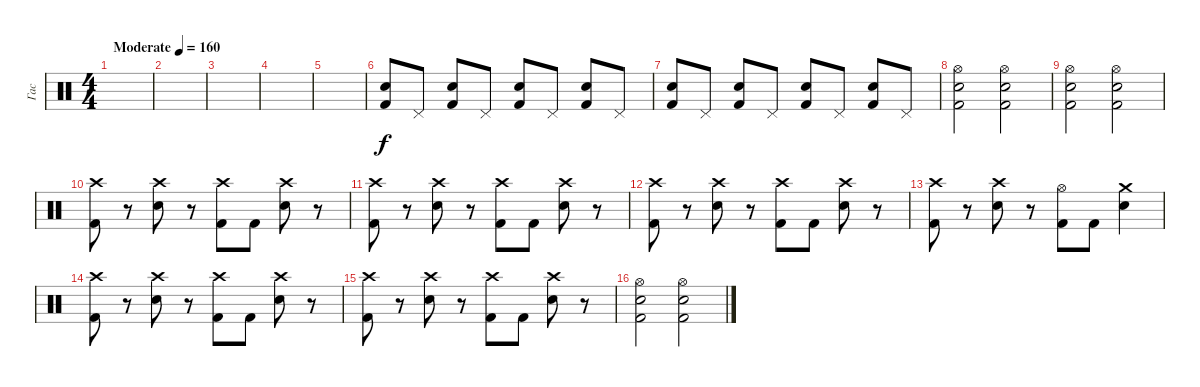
\track ("Гас" "Гас") {instrument percussion}
\staff {score}
\articulation defaults
\ts (4 4)
\tempo (160 "Moderate")
\clef neutral
\ks c
|
|
|
|
|
("Electric Snare (hit)" "Kick (hit) 2").8 "Pedal Hi-Hat (hit)".8 ("Electric Snare (hit)" "Kick (hit) 2").8 "Pedal Hi-Hat (hit)".8 ("Electric Snare (hit)" "Kick (hit) 2").8 "Pedal Hi-Hat (hit)".8 ("Electric Snare (hit)" "Kick (hit) 2").8 "Pedal Hi-Hat (hit)".8 |
("Electric Snare (hit)" "Kick (hit) 2").8 "Pedal Hi-Hat (hit)".8 ("Electric Snare (hit)" "Kick (hit) 2").8 "Pedal Hi-Hat (hit)".8 ("Electric Snare (hit)" "Kick (hit) 2").8 "Pedal Hi-Hat (hit)".8 ("Electric Snare (hit)" "Kick (hit) 2").8 "Pedal Hi-Hat (hit)".8 |
("Hi-Hat (open)" "Electric Snare (hit)" "Kick (hit) 2").2 ("Hi-Hat (open)" "Electric Snare (hit)" "Kick (hit) 2").2 |
("Hi-Hat (open)" "Electric Snare (hit)" "Kick (hit) 2").2 ("Hi-Hat (open)" "Electric Snare (hit)" "Kick (hit) 2").2 |
("Crash high (hit)" "Kick (hit) 2").8 r.8 ("Crash high (hit)" "Electric Snare (hit)").8 r.8 ("Crash high (hit)" "Kick (hit) 2").8 "Kick (hit) 2".8 ("Crash high (hit)" "Electric Snare (hit)").8 r.8 |
("Crash high (hit)" "Kick (hit) 2").8 r.8 ("Crash high (hit)" "Electric Snare (hit)").8 r.8 ("Crash high (hit)" "Kick (hit) 2").8 "Kick (hit) 2".8 ("Crash high (hit)" "Electric Snare (hit)").8 r.8 |
("Crash high (hit)" "Kick (hit) 2").8 r.8 ("Crash high (hit)" "Electric Snare (hit)").8 r.8 ("Crash high (hit)" "Kick (hit) 2").8 "Kick (hit) 2".8 ("Crash high (hit)" "Electric Snare (hit)").8 r.8 |
("Crash high (hit)" "Kick (hit) 2").8 r.8 ("Crash high (hit)" "Electric Snare (hit)").8 r.8 ("Hi-Hat (open)" "Kick (hit) 2").8 "Kick (hit) 2".8 ("Crash medium (hit)" "Electric Snare (hit)").4 |
("Crash high (hit)" "Kick (hit) 2").8 r.8 ("Crash high (hit)" "Electric Snare (hit)").8 r.8 ("Crash high (hit)" "Kick (hit) 2").8 "Kick (hit) 2".8 ("Crash high (hit)" "Electric Snare (hit)").8 r.8 |
("Crash high (hit)" "Kick (hit) 2").8 r.8 ("Crash high (hit)" "Electric Snare (hit)").8 r.8 ("Crash high (hit)" "Kick (hit) 2").8 "Kick (hit) 2".8 ("Crash high (hit)" "Electric Snare (hit)").8 r.8 |
("Hi-Hat (open)" "Electric Snare (hit)" "Kick (hit) 2").2 ("Hi-Hat (open)" "Electric Snare (hit)" "Kick (hit) 2").2
